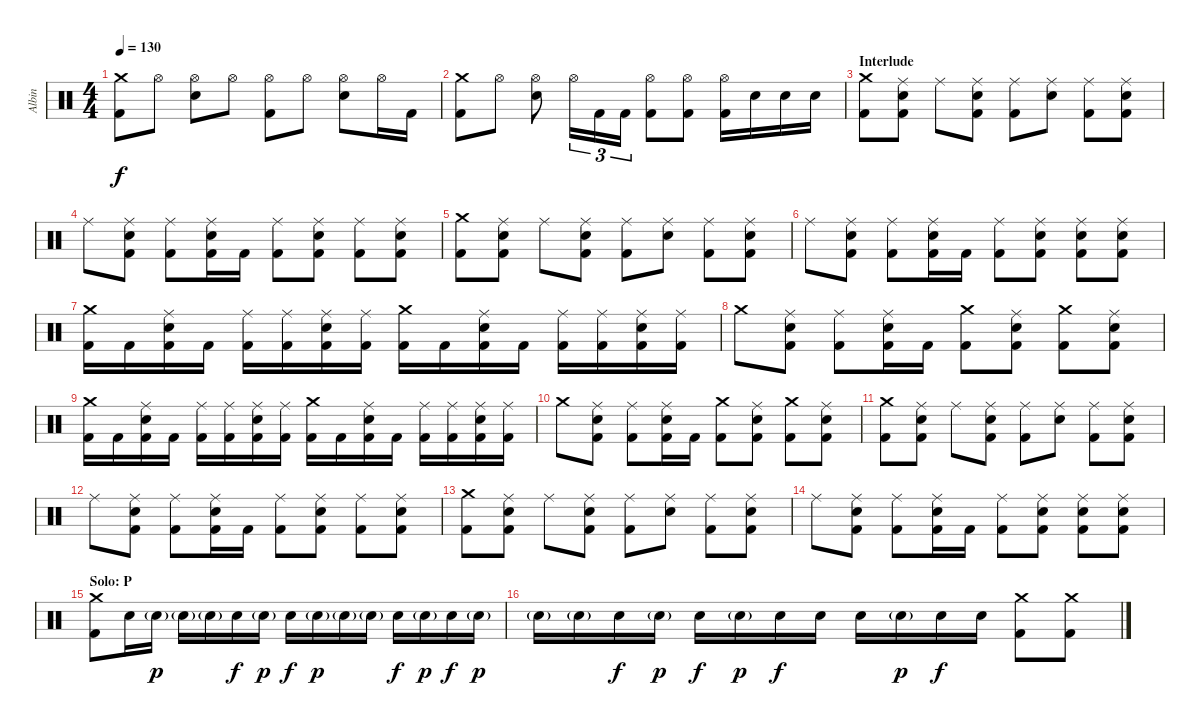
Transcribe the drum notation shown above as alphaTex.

\track ("Albin" "Albin") {instrument percussion}
\staff {score}
\articulation defaults
\ts (4 4)
\tempo 130
\clef neutral
\ks c
("Crash medium (hit)" "Kick (hit) 2").8{dy f} "Hi-Hat (open)".8 ("Hi-Hat (open)" "Electric Snare (hit)").8 "Hi-Hat (open)".8 ("Hi-Hat (open)" "Kick (hit) 2").8 "Hi-Hat (open)".8 ("Hi-Hat (open)" "Electric Snare (hit)").8 "Hi-Hat (open)".16 "Kick (hit) 2".16 |
("Crash medium (hit)" "Kick (hit) 2").8 "Hi-Hat (open)".8 ("Hi-Hat (open)" "Electric Snare (hit)").8 "Hi-Hat (open)".16{tu (3 2)} "Kick (hit) 2".16{tu (3 2)} "Kick (hit) 2".16{tu (3 2)} ("Hi-Hat (open)" "Kick (hit) 2").8 ("Hi-Hat (open)" "Kick (hit) 2").8 ("Hi-Hat (open)" "Kick (hit) 2").16 "Electric Snare (hit)".16 "Electric Snare (hit)".16 "Electric Snare (hit)".16 |
\section ("" "Interlude")
("Crash medium (hit)" "Kick (hit) 2").8 ("Ride (middle)" "Electric Snare (hit)" "Kick (hit) 2").8 "Ride (middle)".8 ("Ride (middle)" "Electric Snare (hit)" "Kick (hit) 2").8 ("Ride (middle)" "Kick (hit) 2").8 ("Ride (middle)" "Electric Snare (hit)").8 ("Ride (middle)" "Kick (hit) 2").8 ("Ride (middle)" "Electric Snare (hit)" "Kick (hit) 2").8 |
"Ride (middle)".8 ("Ride (middle)" "Electric Snare (hit)" "Kick (hit) 2").8 ("Ride (middle)" "Kick (hit) 2").8 ("Ride (middle)" "Electric Snare (hit)" "Kick (hit) 2").16 "Kick (hit) 2".16 ("Ride (middle)" "Kick (hit) 2").8 ("Ride (middle)" "Electric Snare (hit)" "Kick (hit) 2").8 ("Ride (middle)" "Kick (hit) 2").8 ("Ride (middle)" "Electric Snare (hit)" "Kick (hit) 2").8 |
("Crash medium (hit)" "Kick (hit) 2").8 ("Ride (middle)" "Electric Snare (hit)" "Kick (hit) 2").8 "Ride (middle)".8 ("Ride (middle)" "Electric Snare (hit)" "Kick (hit) 2").8 ("Ride (middle)" "Kick (hit) 2").8 ("Ride (middle)" "Electric Snare (hit)").8 ("Ride (middle)" "Kick (hit) 2").8 ("Ride (middle)" "Electric Snare (hit)" "Kick (hit) 2").8 |
"Ride (middle)".8 ("Ride (middle)" "Electric Snare (hit)" "Kick (hit) 2").8 ("Ride (middle)" "Kick (hit) 2").8 ("Ride (middle)" "Electric Snare (hit)" "Kick (hit) 2").16 "Kick (hit) 2".16 ("Ride (middle)" "Kick (hit) 2").8 ("Ride (middle)" "Electric Snare (hit)" "Kick (hit) 2").8 ("Ride (middle)" "Electric Snare (hit)" "Kick (hit) 2").8 ("Ride (middle)" "Electric Snare (hit)" "Kick (hit) 2").8 |
("Crash medium (hit)" "Kick (hit) 2").16 "Kick (hit) 2".16 ("Ride (middle)" "Electric Snare (hit)" "Kick (hit) 2").16 "Kick (hit) 2".16 ("Ride (middle)" "Kick (hit) 2").16 ("Ride (middle)" "Kick (hit) 2").16 ("Ride (middle)" "Electric Snare (hit)" "Kick (hit) 2").16 ("Ride (middle)" "Kick (hit) 2").16 ("Crash medium (hit)" "Kick (hit) 2").16 "Kick (hit) 2".16 ("Ride (middle)" "Electric Snare (hit)" "Kick (hit) 2").16 "Kick (hit) 2".16 ("Ride (middle)" "Kick (hit) 2").16 ("Ride (middle)" "Kick (hit) 2").16 ("Ride (middle)" "Electric Snare (hit)" "Kick (hit) 2").16 ("Ride (middle)" "Kick (hit) 2").16 |
"Crash medium (hit)".8 ("Ride (middle)" "Electric Snare (hit)" "Kick (hit) 2").8 ("Ride (middle)" "Kick (hit) 2").8 ("Ride (middle)" "Electric Snare (hit)" "Kick (hit) 2").16 "Kick (hit) 2".16 ("Crash medium (hit)" "Kick (hit) 2").8 ("Ride (middle)" "Electric Snare (hit)" "Kick (hit) 2").8 ("Crash medium (hit)" "Kick (hit) 2").8 ("Ride (middle)" "Electric Snare (hit)" "Kick (hit) 2").8 |
("Crash medium (hit)" "Kick (hit) 2").16 "Kick (hit) 2".16 ("Ride (middle)" "Electric Snare (hit)" "Kick (hit) 2").16 "Kick (hit) 2".16 ("Ride (middle)" "Kick (hit) 2").16 ("Ride (middle)" "Kick (hit) 2").16 ("Ride (middle)" "Electric Snare (hit)" "Kick (hit) 2").16 ("Ride (middle)" "Kick (hit) 2").16 ("Crash medium (hit)" "Kick (hit) 2").16 "Kick (hit) 2".16 ("Ride (middle)" "Electric Snare (hit)" "Kick (hit) 2").16 "Kick (hit) 2".16 ("Ride (middle)" "Kick (hit) 2").16 ("Ride (middle)" "Kick (hit) 2").16 ("Ride (middle)" "Electric Snare (hit)" "Kick (hit) 2").16 ("Ride (middle)" "Kick (hit) 2").16 |
"Crash medium (hit)".8 ("Ride (middle)" "Electric Snare (hit)" "Kick (hit) 2").8 ("Ride (middle)" "Kick (hit) 2").8 ("Ride (middle)" "Electric Snare (hit)" "Kick (hit) 2").16 "Kick (hit) 2".16 ("Crash medium (hit)" "Kick (hit) 2").8 ("Ride (middle)" "Electric Snare (hit)" "Kick (hit) 2").8 ("Crash medium (hit)" "Kick (hit) 2").8 ("Ride (middle)" "Electric Snare (hit)" "Kick (hit) 2").8 |
("Crash medium (hit)" "Kick (hit) 2").8 ("Ride (middle)" "Electric Snare (hit)" "Kick (hit) 2").8 "Ride (middle)".8 ("Ride (middle)" "Electric Snare (hit)" "Kick (hit) 2").8 ("Ride (middle)" "Kick (hit) 2").8 ("Ride (middle)" "Electric Snare (hit)").8 ("Ride (middle)" "Kick (hit) 2").8 ("Ride (middle)" "Electric Snare (hit)" "Kick (hit) 2").8 |
"Ride (middle)".8 ("Ride (middle)" "Electric Snare (hit)" "Kick (hit) 2").8 ("Ride (middle)" "Kick (hit) 2").8 ("Ride (middle)" "Electric Snare (hit)" "Kick (hit) 2").16 "Kick (hit) 2".16 ("Ride (middle)" "Kick (hit) 2").8 ("Ride (middle)" "Electric Snare (hit)" "Kick (hit) 2").8 ("Ride (middle)" "Kick (hit) 2").8 ("Ride (middle)" "Electric Snare (hit)" "Kick (hit) 2").8 |
("Crash medium (hit)" "Kick (hit) 2").8 ("Ride (middle)" "Electric Snare (hit)" "Kick (hit) 2").8 "Ride (middle)".8 ("Ride (middle)" "Electric Snare (hit)" "Kick (hit) 2").8 ("Ride (middle)" "Kick (hit) 2").8 ("Ride (middle)" "Electric Snare (hit)").8 ("Ride (middle)" "Kick (hit) 2").8 ("Ride (middle)" "Electric Snare (hit)" "Kick (hit) 2").8 |
"Ride (middle)".8 ("Ride (middle)" "Electric Snare (hit)" "Kick (hit) 2").8 ("Ride (middle)" "Kick (hit) 2").8 ("Ride (middle)" "Electric Snare (hit)" "Kick (hit) 2").16 "Kick (hit) 2".16 ("Ride (middle)" "Kick (hit) 2").8 ("Ride (middle)" "Electric Snare (hit)" "Kick (hit) 2").8 ("Ride (middle)" "Electric Snare (hit)" "Kick (hit) 2").8 ("Ride (middle)" "Electric Snare (hit)" "Kick (hit) 2").8 |
\section ("" "Solo: P")
("Crash medium (hit)" "Kick (hit) 2").8 "Electric Snare (hit)".16 "Electric Snare (hit)"{g}.16{dy p} "Electric Snare (hit)"{g}.16 "Electric Snare (hit)"{g}.16 "Electric Snare (hit)".16{dy f} "Electric Snare (hit)"{g}.16{dy p} "Electric Snare (hit)".16{dy f} "Electric Snare (hit)"{g}.16{dy p} "Electric Snare (hit)"{g}.16 "Electric Snare (hit)"{g}.16 "Electric Snare (hit)".16{dy f} "Electric Snare (hit)"{g}.16{dy p} "Electric Snare (hit)".16{dy f} "Electric Snare (hit)"{g}.16{dy p} |
"Electric Snare (hit)"{g}.16 "Electric Snare (hit)"{g}.16 "Electric Snare (hit)".16{dy f} "Electric Snare (hit)"{g}.16{dy p} "Electric Snare (hit)".16{dy f} "Electric Snare (hit)"{g}.16{dy p} "Electric Snare (hit)".16{dy f} "Electric Snare (hit)".16 "Electric Snare (hit)".16 "Electric Snare (hit)"{g}.16{dy p} "Electric Snare (hit)".16{dy f} "Electric Snare (hit)".16 ("Crash medium (hit)" "Kick (hit) 2").8 ("Crash medium (hit)" "Kick (hit) 2").8
